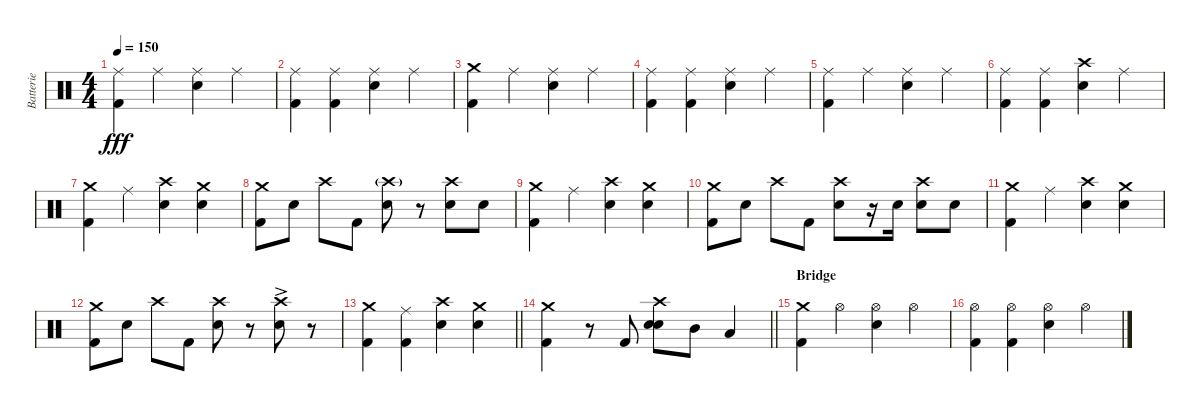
\track ("Batterie" "Batterie") {instrument percussion}
\staff {score}
\articulation defaults
\ts (4 4)
\tempo 150
\clef neutral
\ks c
("Ride (middle)" "Kick (hit) 2").4{dy fff} "Ride (middle)".4 ("Ride (middle)" "Electric Snare (hit)").4 "Ride (middle)".4 |
("Ride (middle)" "Kick (hit) 2").4 ("Ride (middle)" "Kick (hit) 2").4 ("Ride (middle)" "Electric Snare (hit)").4 "Ride (middle)".4 |
("Crash medium (hit)" "Kick (hit) 2").4 "Ride (middle)".4 ("Ride (middle)" "Electric Snare (hit)").4 "Ride (middle)".4 |
("Ride (middle)" "Kick (hit) 2").4 ("Ride (middle)" "Kick (hit) 2").4 ("Ride (middle)" "Electric Snare (hit)").4 "Ride (middle)".4 |
("Ride (middle)" "Kick (hit) 2").4 "Ride (middle)".4 ("Ride (middle)" "Electric Snare (hit)").4 "Ride (middle)".4 |
("Ride (middle)" "Kick (hit) 2").4 ("Ride (middle)" "Kick (hit) 2").4 ("Crash high (hit)" "Electric Snare (hit)").4 "Ride (middle)".4 |
("Crash medium (hit)" "Kick (hit) 2").4 "Ride (middle)".4 ("Crash high (hit)" "Electric Snare (hit)").4 ("Crash medium (hit)" "Electric Snare (hit)").4 |
("Crash medium (hit)" "Kick (hit) 2").8 "Electric Snare (hit)".8 "Crash high (hit)".8 "Kick (hit) 2".8 ("Crash high (hit)"{g} "Electric Snare (hit)").8 r.8 ("Crash high (hit)" "Electric Snare (hit)").8 "Electric Snare (hit)".8 |
("Crash medium (hit)" "Kick (hit) 2").4 "Ride (middle)".4 ("Crash high (hit)" "Electric Snare (hit)").4 ("Crash medium (hit)" "Electric Snare (hit)").4 |
("Crash medium (hit)" "Kick (hit) 2").8 "Electric Snare (hit)".8 "Crash high (hit)".8 "Kick (hit) 2".8 ("Crash high (hit)" "Electric Snare (hit)").8 r.16 "Electric Snare (hit)".16 ("Crash high (hit)" "Electric Snare (hit)").8 "Electric Snare (hit)".8 |
("Crash medium (hit)" "Kick (hit) 2").4 "Ride (middle)".4 ("Crash high (hit)" "Electric Snare (hit)").4 ("Crash medium (hit)" "Electric Snare (hit)").4 |
("Crash medium (hit)" "Kick (hit) 2").8 "Electric Snare (hit)".8 "Crash high (hit)".8 "Kick (hit) 2".8 ("Crash high (hit)" "Electric Snare (hit)").8 r.8 ("Crash high (hit)"{ac} "Electric Snare (hit)").8 r.8 |
\barLineRight lightlight
("Crash medium (hit)" "Kick (hit) 2").4 ("Ride (middle)" "Kick (hit) 2").4 ("Crash high (hit)" "Electric Snare (hit)").4 ("Crash medium (hit)" "Electric Snare (hit)").4 |
\barLineRight lightlight
("Crash medium (hit)" "Kick (hit) 2").4 r.8 "Kick (hit) 2".8 ("Crash high (hit)" "Electric Snare (hit)" "Electric Snare (hit)").8{bu 120} "Mid Tom (hit)".8 "Low Tom (hit)".4 |
\section ("" "Bridge")
("Crash medium (hit)" "Kick (hit) 2").4 "Hi-Hat (open)".4 ("Hi-Hat (open)" "Electric Snare (hit)").4 "Hi-Hat (open)".4 |
("Hi-Hat (open)" "Kick (hit) 2").4 ("Hi-Hat (open)" "Kick (hit) 2").4 ("Hi-Hat (open)" "Electric Snare (hit)").4 "Hi-Hat (open)".4
